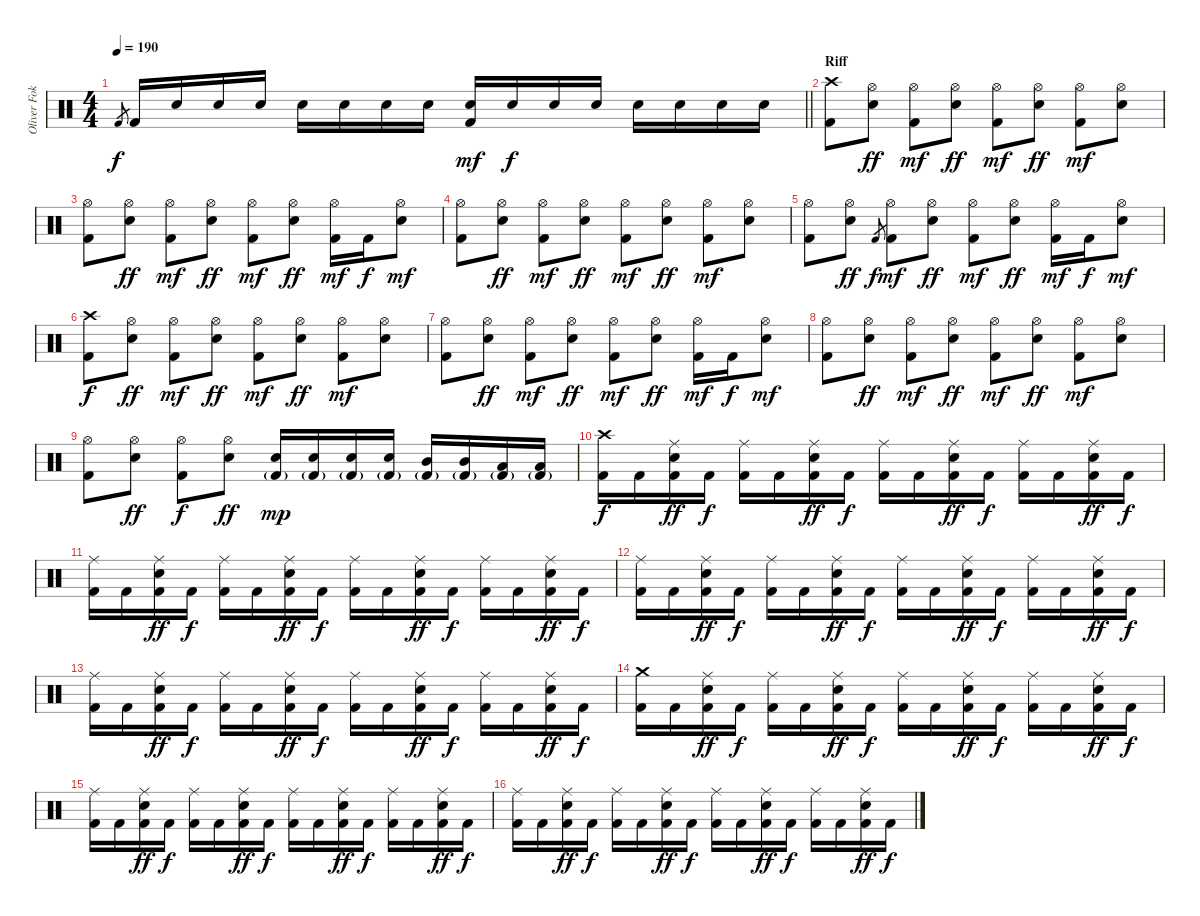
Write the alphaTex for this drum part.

\track ("Oliver Fokin" "Oliver Fok") {instrument percussion}
\staff {score}
\articulation defaults
\ts (4 4)
\tempo 190
\clef neutral
\barLineRight lightlight
\ks c "Kick (hit) 2".8{gr dy f} "Kick (hit) 2".16 "Electric Snare (hit)".16 "Electric Snare (hit)".16 "Electric Snare (hit)".16 "Electric Snare (hit)".16 "Electric Snare (hit)".16 "Electric Snare (hit)".16 "Electric Snare (hit)".16
("Electric Snare (hit)" "Kick (hit) 2").16{dy mf} "Electric Snare (hit)".16{dy f} "Electric Snare (hit)".16 "Electric Snare (hit)".16 "Electric Snare (hit)".16 "Electric Snare (hit)".16 "Electric Snare (hit)".16 "Electric Snare (hit)".16 |
\section ("" "Riff")
("Crash high (hit)" "Kick (hit) 2").8 ("Hi-Hat (open)" "Electric Snare (hit)").8{dy ff} ("Hi-Hat (open)" "Kick (hit) 2").8{dy mf} ("Hi-Hat (open)" "Electric Snare (hit)").8{dy ff} ("Hi-Hat (open)" "Kick (hit) 2").8{dy mf} ("Hi-Hat (open)" "Electric Snare (hit)").8{dy ff} ("Hi-Hat (open)" "Kick (hit) 2").8{dy mf} ("Hi-Hat (open)" "Electric Snare (hit)").8 |
("Hi-Hat (open)" "Kick (hit) 2").8 ("Hi-Hat (open)" "Electric Snare (hit)").8{dy ff} ("Hi-Hat (open)" "Kick (hit) 2").8{dy mf} ("Hi-Hat (open)" "Electric Snare (hit)").8{dy ff} ("Hi-Hat (open)" "Kick (hit) 2").8{dy mf} ("Hi-Hat (open)" "Electric Snare (hit)").8{dy ff} ("Hi-Hat (open)" "Kick (hit) 2").16{dy mf} "Kick (hit) 2".16{dy f} ("Hi-Hat (open)" "Electric Snare (hit)").8{dy mf} |
("Hi-Hat (open)" "Kick (hit) 2").8 ("Hi-Hat (open)" "Electric Snare (hit)").8{dy ff} ("Hi-Hat (open)" "Kick (hit) 2").8{dy mf} ("Hi-Hat (open)" "Electric Snare (hit)").8{dy ff} ("Hi-Hat (open)" "Kick (hit) 2").8{dy mf} ("Hi-Hat (open)" "Electric Snare (hit)").8{dy ff} ("Hi-Hat (open)" "Kick (hit) 2").8{dy mf} ("Hi-Hat (open)" "Electric Snare (hit)").8 |
("Hi-Hat (open)" "Kick (hit) 2").8 ("Hi-Hat (open)" "Electric Snare (hit)").8{dy ff} "Kick (hit) 2".8{gr dy f} ("Hi-Hat (open)" "Kick (hit) 2").8{dy mf} ("Hi-Hat (open)" "Electric Snare (hit)").8{dy ff} ("Hi-Hat (open)" "Kick (hit) 2").8{dy mf} ("Hi-Hat (open)" "Electric Snare (hit)").8{dy ff} ("Hi-Hat (open)" "Kick (hit) 2").16{dy mf} "Kick (hit) 2".16{dy f} ("Hi-Hat (open)" "Electric Snare (hit)").8{dy mf} |
("Crash high (hit)" "Kick (hit) 2").8{dy f} ("Hi-Hat (open)" "Electric Snare (hit)").8{dy ff} ("Hi-Hat (open)" "Kick (hit) 2").8{dy mf} ("Hi-Hat (open)" "Electric Snare (hit)").8{dy ff} ("Hi-Hat (open)" "Kick (hit) 2").8{dy mf} ("Hi-Hat (open)" "Electric Snare (hit)").8{dy ff} ("Hi-Hat (open)" "Kick (hit) 2").8{dy mf} ("Hi-Hat (open)" "Electric Snare (hit)").8 |
("Hi-Hat (open)" "Kick (hit) 2").8 ("Hi-Hat (open)" "Electric Snare (hit)").8{dy ff} ("Hi-Hat (open)" "Kick (hit) 2").8{dy mf} ("Hi-Hat (open)" "Electric Snare (hit)").8{dy ff} ("Hi-Hat (open)" "Kick (hit) 2").8{dy mf} ("Hi-Hat (open)" "Electric Snare (hit)").8{dy ff} ("Hi-Hat (open)" "Kick (hit) 2").16{dy mf} "Kick (hit) 2".16{dy f} ("Hi-Hat (open)" "Electric Snare (hit)").8{dy mf} |
("Hi-Hat (open)" "Kick (hit) 2").8 ("Hi-Hat (open)" "Electric Snare (hit)").8{dy ff} ("Hi-Hat (open)" "Kick (hit) 2").8{dy mf} ("Hi-Hat (open)" "Electric Snare (hit)").8{dy ff} ("Hi-Hat (open)" "Kick (hit) 2").8{dy mf} ("Hi-Hat (open)" "Electric Snare (hit)").8{dy ff} ("Hi-Hat (open)" "Kick (hit) 2").8{dy mf} ("Hi-Hat (open)" "Electric Snare (hit)").8 |
("Hi-Hat (open)" "Kick (hit) 2").8 ("Hi-Hat (open)" "Electric Snare (hit)").8{dy ff} ("Hi-Hat (open)" "Kick (hit) 2").8{dy f} ("Hi-Hat (open)" "Electric Snare (hit)").8{dy ff} ("Electric Snare (hit)" "Kick (hit) 2"{g}).16{dy mp} ("Electric Snare (hit)" "Kick (hit) 2"{g}).16 ("Electric Snare (hit)" "Kick (hit) 2"{g}).16 ("Electric Snare (hit)" "Kick (hit) 2"{g}).16 ("Mid Tom (hit)" "Kick (hit) 2"{g}).16 ("Mid Tom (hit)" "Kick (hit) 2"{g}).16 ("Low Tom (hit)" "Kick (hit) 2"{g}).16 ("Low Tom (hit)" "Kick (hit) 2"{g}).16 |
("Crash high (hit)" "Kick (hit) 2").16{dy f} "Kick (hit) 2".16 ("Ride (middle)" "Electric Snare (hit)" "Kick (hit) 2").16{dy ff} "Kick (hit) 2".16{dy f} ("Ride (middle)" "Kick (hit) 2").16 "Kick (hit) 2".16 ("Ride (middle)" "Electric Snare (hit)" "Kick (hit) 2").16{dy ff} "Kick (hit) 2".16{dy f} ("Ride (middle)" "Kick (hit) 2").16 "Kick (hit) 2".16 ("Ride (middle)" "Electric Snare (hit)" "Kick (hit) 2").16{dy ff} "Kick (hit) 2".16{dy f} ("Ride (middle)" "Kick (hit) 2").16 "Kick (hit) 2".16 ("Ride (middle)" "Electric Snare (hit)" "Kick (hit) 2").16{dy ff} "Kick (hit) 2".16{dy f} |
("Ride (middle)" "Kick (hit) 2").16 "Kick (hit) 2".16 ("Ride (middle)" "Electric Snare (hit)" "Kick (hit) 2").16{dy ff} "Kick (hit) 2".16{dy f} ("Ride (middle)" "Kick (hit) 2").16 "Kick (hit) 2".16 ("Ride (middle)" "Electric Snare (hit)" "Kick (hit) 2").16{dy ff} "Kick (hit) 2".16{dy f} ("Ride (middle)" "Kick (hit) 2").16 "Kick (hit) 2".16 ("Ride (middle)" "Electric Snare (hit)" "Kick (hit) 2").16{dy ff} "Kick (hit) 2".16{dy f} ("Ride (middle)" "Kick (hit) 2").16 "Kick (hit) 2".16 ("Ride (middle)" "Electric Snare (hit)" "Kick (hit) 2").16{dy ff} "Kick (hit) 2".16{dy f} |
("Ride (middle)" "Kick (hit) 2").16 "Kick (hit) 2".16 ("Ride (middle)" "Electric Snare (hit)" "Kick (hit) 2").16{dy ff} "Kick (hit) 2".16{dy f} ("Ride (middle)" "Kick (hit) 2").16 "Kick (hit) 2".16 ("Ride (middle)" "Electric Snare (hit)" "Kick (hit) 2").16{dy ff} "Kick (hit) 2".16{dy f} ("Ride (middle)" "Kick (hit) 2").16 "Kick (hit) 2".16 ("Ride (middle)" "Electric Snare (hit)" "Kick (hit) 2").16{dy ff} "Kick (hit) 2".16{dy f} ("Ride (middle)" "Kick (hit) 2").16 "Kick (hit) 2".16 ("Ride (middle)" "Electric Snare (hit)" "Kick (hit) 2").16{dy ff} "Kick (hit) 2".16{dy f} |
("Ride (middle)" "Kick (hit) 2").16 "Kick (hit) 2".16 ("Ride (middle)" "Electric Snare (hit)" "Kick (hit) 2").16{dy ff} "Kick (hit) 2".16{dy f} ("Ride (middle)" "Kick (hit) 2").16 "Kick (hit) 2".16 ("Ride (middle)" "Electric Snare (hit)" "Kick (hit) 2").16{dy ff} "Kick (hit) 2".16{dy f} ("Ride (middle)" "Kick (hit) 2").16 "Kick (hit) 2".16 ("Ride (middle)" "Electric Snare (hit)" "Kick (hit) 2").16{dy ff} "Kick (hit) 2".16{dy f} ("Ride (middle)" "Kick (hit) 2").16 "Kick (hit) 2".16 ("Ride (middle)" "Electric Snare (hit)" "Kick (hit) 2").16{dy ff} "Kick (hit) 2".16{dy f} |
("Crash medium (hit)" "Kick (hit) 2").16 "Kick (hit) 2".16 ("Ride (middle)" "Electric Snare (hit)" "Kick (hit) 2").16{dy ff} "Kick (hit) 2".16{dy f} ("Ride (middle)" "Kick (hit) 2").16 "Kick (hit) 2".16 ("Ride (middle)" "Electric Snare (hit)" "Kick (hit) 2").16{dy ff} "Kick (hit) 2".16{dy f} ("Ride (middle)" "Kick (hit) 2").16 "Kick (hit) 2".16 ("Ride (middle)" "Electric Snare (hit)" "Kick (hit) 2").16{dy ff} "Kick (hit) 2".16{dy f} ("Ride (middle)" "Kick (hit) 2").16 "Kick (hit) 2".16 ("Ride (middle)" "Electric Snare (hit)" "Kick (hit) 2").16{dy ff} "Kick (hit) 2".16{dy f} |
("Ride (middle)" "Kick (hit) 2").16 "Kick (hit) 2".16 ("Ride (middle)" "Electric Snare (hit)" "Kick (hit) 2").16{dy ff} "Kick (hit) 2".16{dy f} ("Ride (middle)" "Kick (hit) 2").16 "Kick (hit) 2".16 ("Ride (middle)" "Electric Snare (hit)" "Kick (hit) 2").16{dy ff} "Kick (hit) 2".16{dy f} ("Ride (middle)" "Kick (hit) 2").16 "Kick (hit) 2".16 ("Ride (middle)" "Electric Snare (hit)" "Kick (hit) 2").16{dy ff} "Kick (hit) 2".16{dy f} ("Ride (middle)" "Kick (hit) 2").16 "Kick (hit) 2".16 ("Ride (middle)" "Electric Snare (hit)" "Kick (hit) 2").16{dy ff} "Kick (hit) 2".16{dy f} |
("Ride (middle)" "Kick (hit) 2").16 "Kick (hit) 2".16 ("Ride (middle)" "Electric Snare (hit)" "Kick (hit) 2").16{dy ff} "Kick (hit) 2".16{dy f} ("Ride (middle)" "Kick (hit) 2").16 "Kick (hit) 2".16 ("Ride (middle)" "Electric Snare (hit)" "Kick (hit) 2").16{dy ff} "Kick (hit) 2".16{dy f} ("Ride (middle)" "Kick (hit) 2").16 "Kick (hit) 2".16 ("Ride (middle)" "Electric Snare (hit)" "Kick (hit) 2").16{dy ff} "Kick (hit) 2".16{dy f} ("Ride (middle)" "Kick (hit) 2").16 "Kick (hit) 2".16 ("Ride (middle)" "Electric Snare (hit)" "Kick (hit) 2").16{dy ff} "Kick (hit) 2".16{dy f}
